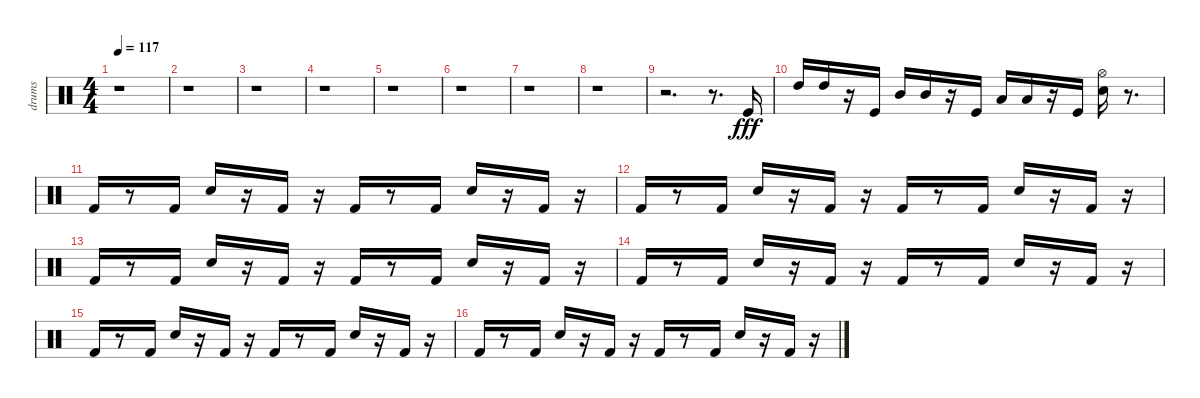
\track ("drums" "drums") {instrument percussion}
\staff {score}
\articulation defaults
\ts (4 4)
\tempo 117
\clef neutral
\ks c
r.1{dy fff} |
r.1 |
r.1 |
r.1 |
r.1 |
r.1 |
r.1 |
r.1 |
r.2{d} r.8{d} "Kick (hit)".16 |
"High Tom (hit)".16 "High Tom (hit)".16 r.16 "Kick (hit)".16 "Mid Tom (hit)".16 "Mid Tom (hit)".16 r.16 "Kick (hit)".16 "Low Tom (hit)".16 "Low Tom (hit)".16 r.16 "Kick (hit)".16 ("Hi-Hat (open)" "Snare (hit) 2").16 r.8{d} |
"Kick (hit) 2".16 r.8 "Kick (hit) 2".16 "Snare (hit) 2".16 r.16 "Kick (hit) 2".16 r.16 "Kick (hit) 2".16 r.8 "Kick (hit) 2".16 "Snare (hit) 2".16 r.16 "Kick (hit) 2".16 r.16 |
"Kick (hit) 2".16 r.8 "Kick (hit) 2".16 "Snare (hit) 2".16 r.16 "Kick (hit) 2".16 r.16 "Kick (hit) 2".16 r.8 "Kick (hit) 2".16 "Snare (hit) 2".16 r.16 "Kick (hit) 2".16 r.16 |
"Kick (hit) 2".16 r.8 "Kick (hit) 2".16 "Snare (hit) 2".16 r.16 "Kick (hit) 2".16 r.16 "Kick (hit) 2".16 r.8 "Kick (hit) 2".16 "Snare (hit) 2".16 r.16 "Kick (hit) 2".16 r.16 |
"Kick (hit) 2".16 r.8 "Kick (hit) 2".16 "Snare (hit) 2".16 r.16 "Kick (hit) 2".16 r.16 "Kick (hit) 2".16 r.8 "Kick (hit) 2".16 "Snare (hit) 2".16 r.16 "Kick (hit) 2".16 r.16 |
"Kick (hit) 2".16 r.8 "Kick (hit) 2".16 "Snare (hit) 2".16 r.16 "Kick (hit) 2".16 r.16 "Kick (hit) 2".16 r.8 "Kick (hit) 2".16 "Snare (hit) 2".16 r.16 "Kick (hit) 2".16 r.16 |
"Kick (hit) 2".16 r.8 "Kick (hit) 2".16 "Snare (hit) 2".16 r.16 "Kick (hit) 2".16 r.16 "Kick (hit) 2".16 r.8 "Kick (hit) 2".16 "Snare (hit) 2".16 r.16 "Kick (hit) 2".16 r.16
